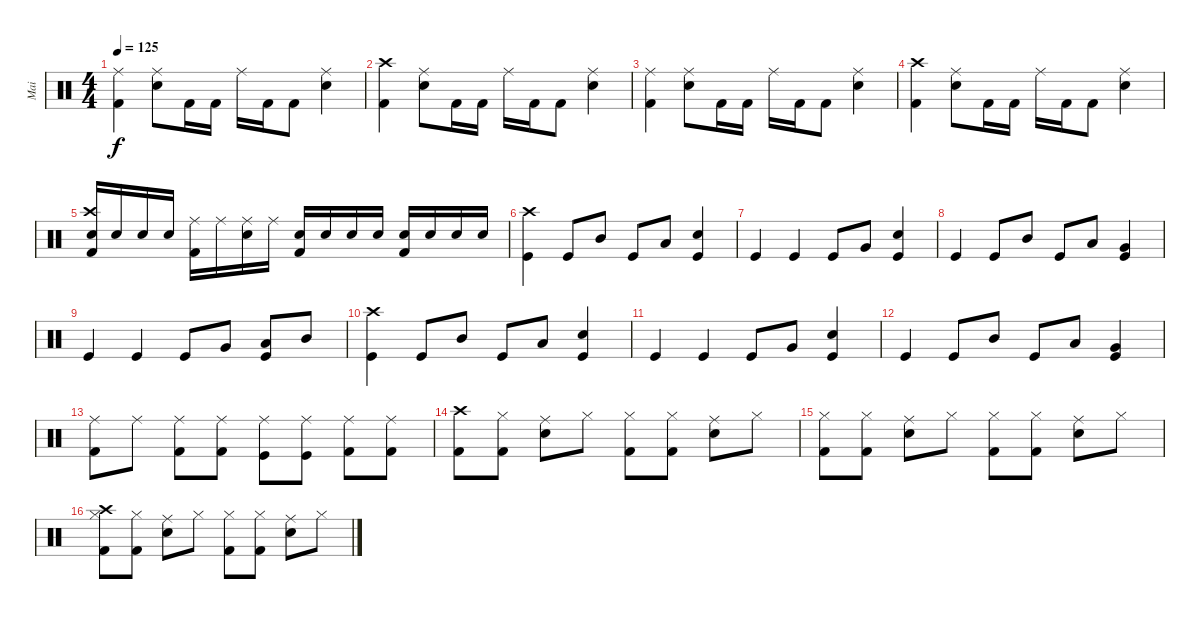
\track ("Mai" "Mai") {instrument percussion}
\staff {score}
\articulation defaults
\ts (4 4)
\tempo 125
\clef neutral
\ks c
("Ride (middle)" "Kick (hit) 2").4{dy f} ("Ride (middle)" "Snare (hit) 2").8 "Kick (hit) 2".16 "Kick (hit) 2".16 "Ride (middle)".16 "Kick (hit) 2".16 "Kick (hit) 2".8 ("Ride (middle)" "Snare (hit) 2").4 |
("Crash high (hit)" "Kick (hit) 2").4 ("Ride (middle)" "Snare (hit) 2").8 "Kick (hit) 2".16 "Kick (hit) 2".16 "Ride (middle)".16 "Kick (hit) 2".16 "Kick (hit) 2".8 ("Ride (middle)" "Snare (hit) 2").4 |
("Ride (middle)" "Kick (hit) 2").4 ("Ride (middle)" "Snare (hit) 2").8 "Kick (hit) 2".16 "Kick (hit) 2".16 "Ride (middle)".16 "Kick (hit) 2".16 "Kick (hit) 2".8 ("Ride (middle)" "Snare (hit) 2").4 |
("Crash high (hit)" "Kick (hit) 2").4 ("Ride (middle)" "Snare (hit) 2").8 "Kick (hit) 2".16 "Kick (hit) 2".16 "Ride (middle)".16 "Kick (hit) 2".16 "Kick (hit) 2".8 ("Ride (middle)" "Snare (hit) 2").4 |
("Kick (hit) 2" "Crash high (hit)" "Electric Snare (hit)").16 "Electric Snare (hit)".16 "Electric Snare (hit)".16 "Electric Snare (hit)".16 ("Kick (hit) 2" "Ride (middle)").16 "Ride (middle)".16 ("Ride (middle)" "Snare (hit) 2").16 "Ride (middle)".16 ("Electric Snare (hit)" "Kick (hit) 2").16 "Electric Snare (hit)".16 "Electric Snare (hit)".16 "Electric Snare (hit)".16 ("Kick (hit) 2" "Snare (hit) 2").16 "Snare (hit) 2".16 "Snare (hit) 2".16 "Snare (hit) 2".16 |
("Kick (hit)" "Crash high (hit)").4 "Kick (hit)".8 "Mid Tom (hit)".8 "Kick (hit)".8 "Low Tom (hit)".8 ("Kick (hit)" "Snare (hit) 2").4 |
"Kick (hit)".4 "Kick (hit)".4 "Kick (hit)".8 "Very Low Tom (hit)".8 ("Kick (hit)" "Electric Snare (hit)").4 |
"Kick (hit)".4 "Kick (hit)".8 "Mid Tom (hit)".8 "Kick (hit)".8 "Low Tom (hit)".8 ("Kick (hit)" "Very Low Tom (hit)").4 |
"Kick (hit)".4 "Kick (hit)".4 "Kick (hit)".8 "Very Low Tom (hit)".8 ("Kick (hit)" "Low Tom (hit)").8 "Mid Tom (hit)".8 |
("Kick (hit)" "Crash high (hit)").4 "Kick (hit)".8 "Mid Tom (hit)".8 "Kick (hit)".8 "Low Tom (hit)".8 ("Kick (hit)" "Snare (hit) 2").4 |
"Kick (hit)".4 "Kick (hit)".4 "Kick (hit)".8 "Very Low Tom (hit)".8 ("Kick (hit)" "Electric Snare (hit)").4 |
"Kick (hit)".4 "Kick (hit)".8 "Mid Tom (hit)".8 "Kick (hit)".8 "Low Tom (hit)".8 ("Kick (hit)" "Very Low Tom (hit)").4 |
("Ride (middle)" "Kick (hit) 2").8 "Ride (middle)".8 ("Ride (middle)" "Kick (hit) 2").8 ("Kick (hit) 2" "Ride (middle)").8 ("Ride (middle)" "Kick (hit)").8 ("Ride (middle)" "Kick (hit)").8 ("Ride (middle)" "Kick (hit) 2").8 ("Ride (middle)" "Kick (hit) 2").8 |
("Crash high (hit)" "Kick (hit) 2").8 ("Hi-Hat (closed)" "Kick (hit) 2").8 ("Ride (middle)" "Snare (hit) 2").8 "Hi-Hat (closed)".8 ("Hi-Hat (closed)" "Kick (hit) 2").8 ("Hi-Hat (closed)" "Kick (hit) 2").8 ("Ride (middle)" "Snare (hit) 2").8 "Hi-Hat (closed)".8 |
("Hi-Hat (closed)" "Kick (hit) 2").8 ("Hi-Hat (closed)" "Kick (hit) 2").8 ("Ride (middle)" "Snare (hit) 2").8 "Hi-Hat (closed)".8 ("Hi-Hat (closed)" "Kick (hit) 2").8 ("Hi-Hat (closed)" "Kick (hit) 2").8 ("Ride (middle)" "Snare (hit) 2").8 "Hi-Hat (closed)".8 |
("Crash high (hit)" "Hi-Hat (closed)" "Kick (hit) 2").8 ("Hi-Hat (closed)" "Kick (hit) 2").8 ("Ride (middle)" "Snare (hit) 2").8 "Hi-Hat (closed)".8 ("Hi-Hat (closed)" "Kick (hit) 2").8 ("Hi-Hat (closed)" "Kick (hit) 2").8 ("Ride (middle)" "Snare (hit) 2").8 "Hi-Hat (closed)".8
